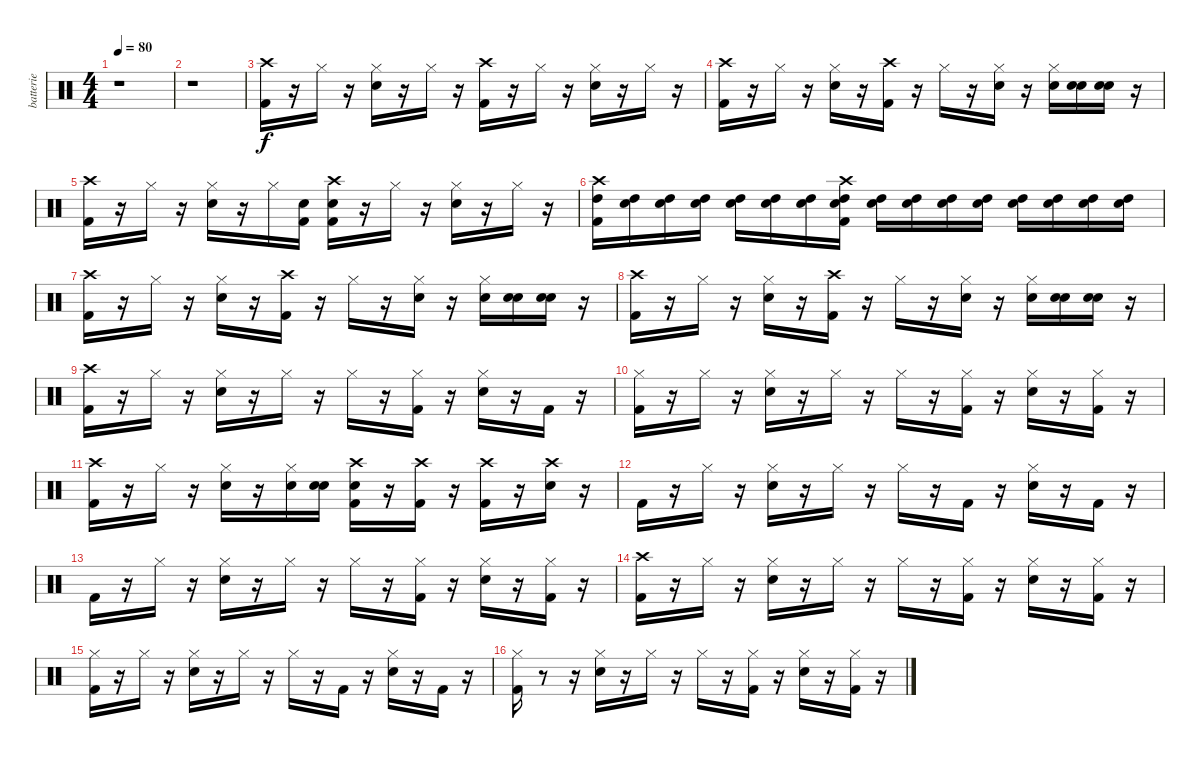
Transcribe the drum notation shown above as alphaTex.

\track ("batterie" "batterie") {instrument percussion}
\staff {score}
\articulation defaults
\ts (4 4)
\tempo 80
\clef neutral
\ks c
r.1{dy f} |
r.1 |
("Crash high (hit)" "Kick (hit) 2").16 r.16 "Hi-Hat (closed)".16 r.16 ("Hi-Hat (closed)" "Snare (hit) 2").16 r.16 "Hi-Hat (closed)".16 r.16 ("Crash high (hit)" "Kick (hit) 2").16 r.16 "Hi-Hat (closed)".16 r.16 ("Hi-Hat (closed)" "Snare (hit) 2").16 r.16 "Hi-Hat (closed)".16 r.16 |
("Crash high (hit)" "Kick (hit) 2").16 r.16 "Hi-Hat (closed)".16 r.16 ("Hi-Hat (closed)" "Snare (hit) 2").16 r.16 ("Crash high (hit)" "Kick (hit) 2").16 r.16 "Hi-Hat (closed)".16 r.16 ("Hi-Hat (closed)" "Snare (hit) 2").16 r.16 ("Hi-Hat (closed)" "Snare (hit) 2").16 ("Snare (hit)" "Snare (hit) 2").16 ("Snare (hit)" "Snare (hit) 2").16 r.16 |
("Crash high (hit)" "Kick (hit) 2").16 r.16 "Hi-Hat (closed)".16 r.16 ("Hi-Hat (closed)" "Snare (hit) 2").16 r.16 "Hi-Hat (closed)".16 ("Snare (hit)" "Kick (hit) 2").16 ("Snare (hit)" "Crash high (hit)" "Kick (hit) 2").16 r.16 "Hi-Hat (closed)".16 r.16 ("Hi-Hat (closed)" "Snare (hit) 2").16 r.16 "Hi-Hat (closed)".16 r.16 |
("High Tom (hit)" "Kick (hit) 2" "Crash high (hit)").16 ("Snare (hit)" "High Tom (hit)").16 ("Snare (hit)" "High Tom (hit)").16 ("Snare (hit)" "High Tom (hit)").16 ("Snare (hit)" "High Tom (hit)").16 ("Snare (hit)" "High Tom (hit)").16 ("Snare (hit)" "High Tom (hit)").16 ("Snare (hit)" "High Tom (hit)" "Kick (hit) 2" "Crash high (hit)").16 ("Snare (hit)" "High Tom (hit)").16 ("Snare (hit)" "High Tom (hit)").16 ("Snare (hit)" "High Tom (hit)").16 ("Snare (hit)" "High Tom (hit)").16 ("Snare (hit)" "High Tom (hit)").16 ("Snare (hit)" "High Tom (hit)").16 ("Snare (hit)" "High Tom (hit)").16 ("Snare (hit)" "High Tom (hit)").16 |
("Crash high (hit)" "Kick (hit) 2").16 r.16 "Hi-Hat (closed)".16 r.16 ("Hi-Hat (closed)" "Snare (hit) 2").16 r.16 ("Crash high (hit)" "Kick (hit) 2").16 r.16 "Hi-Hat (closed)".16 r.16 ("Hi-Hat (closed)" "Snare (hit) 2").16 r.16 ("Hi-Hat (closed)" "Snare (hit) 2").16 ("Snare (hit)" "Snare (hit) 2").16 ("Snare (hit)" "Snare (hit) 2").16 r.16 |
("Crash high (hit)" "Kick (hit) 2").16 r.16 "Hi-Hat (closed)".16 r.16 ("Hi-Hat (closed)" "Snare (hit) 2").16 r.16 ("Crash high (hit)" "Kick (hit) 2").16 r.16 "Hi-Hat (closed)".16 r.16 ("Hi-Hat (closed)" "Snare (hit) 2").16 r.16 ("Hi-Hat (closed)" "Snare (hit) 2").16 ("Snare (hit)" "Snare (hit) 2").16 ("Snare (hit)" "Snare (hit) 2").16 r.16 |
("Crash high (hit)" "Kick (hit) 2").16 r.16 "Hi-Hat (closed)".16 r.16 ("Hi-Hat (closed)" "Snare (hit) 2").16 r.16 "Hi-Hat (closed)".16 r.16 "Hi-Hat (closed)".16 r.16 ("Hi-Hat (closed)" "Kick (hit) 2").16 r.16 ("Hi-Hat (closed)" "Snare (hit) 2").16 r.16 "Kick (hit) 2".16 r.16 |
("Hi-Hat (closed)" "Kick (hit) 2").16 r.16 "Hi-Hat (closed)".16 r.16 ("Hi-Hat (closed)" "Snare (hit) 2").16 r.16 "Hi-Hat (closed)".16 r.16 "Hi-Hat (closed)".16 r.16 ("Hi-Hat (closed)" "Kick (hit) 2").16 r.16 ("Hi-Hat (closed)" "Snare (hit) 2").16 r.16 ("Hi-Hat (closed)" "Kick (hit) 2").16 r.16 |
("Crash high (hit)" "Kick (hit) 2").16 r.16 "Hi-Hat (closed)".16 r.16 ("Hi-Hat (closed)" "Snare (hit) 2").16 r.16 ("Hi-Hat (closed)" "Snare (hit) 2").16 ("Snare (hit)" "Snare (hit) 2").16 ("Snare (hit)" "Crash high (hit)" "Kick (hit) 2").16 r.16 ("Crash high (hit)" "Kick (hit) 2").16 r.16 ("Crash high (hit)" "Kick (hit) 2").16 r.16 ("Crash high (hit)" "Snare (hit) 2").16 r.16 |
"Kick (hit) 2".16 r.16 "Hi-Hat (closed)".16 r.16 ("Hi-Hat (closed)" "Snare (hit) 2").16 r.16 "Hi-Hat (closed)".16 r.16 "Hi-Hat (closed)".16 r.16 "Kick (hit) 2".16 r.16 ("Hi-Hat (closed)" "Snare (hit) 2").16 r.16 "Kick (hit) 2".16 r.16 |
"Kick (hit) 2".16 r.16 "Hi-Hat (closed)".16 r.16 ("Hi-Hat (closed)" "Snare (hit) 2").16 r.16 "Hi-Hat (closed)".16 r.16 "Hi-Hat (closed)".16 r.16 ("Hi-Hat (closed)" "Kick (hit) 2").16 r.16 ("Hi-Hat (closed)" "Snare (hit) 2").16 r.16 ("Hi-Hat (closed)" "Kick (hit) 2").16 r.16 |
("Crash high (hit)" "Kick (hit) 2").16 r.16 "Hi-Hat (closed)".16 r.16 ("Hi-Hat (closed)" "Snare (hit) 2").16 r.16 "Hi-Hat (closed)".16 r.16 "Hi-Hat (closed)".16 r.16 ("Hi-Hat (closed)" "Kick (hit) 2").16 r.16 ("Hi-Hat (closed)" "Snare (hit) 2").16 r.16 ("Hi-Hat (closed)" "Kick (hit) 2").16 r.16 |
("Hi-Hat (closed)" "Kick (hit) 2").16 r.16 "Hi-Hat (closed)".16 r.16 ("Hi-Hat (closed)" "Snare (hit) 2").16 r.16 "Hi-Hat (closed)".16 r.16 "Hi-Hat (closed)".16 r.16 "Kick (hit) 2".16 r.16 ("Hi-Hat (closed)" "Snare (hit) 2").16 r.16 "Kick (hit) 2".16 r.16 |
("Hi-Hat (closed)" "Kick (hit) 2").16 r.8 r.16 ("Hi-Hat (closed)" "Snare (hit) 2").16 r.16 "Hi-Hat (closed)".16 r.16 "Hi-Hat (closed)".16 r.16 ("Hi-Hat (closed)" "Kick (hit) 2").16 r.16 ("Hi-Hat (closed)" "Snare (hit) 2").16 r.16 ("Hi-Hat (closed)" "Kick (hit) 2").16 r.16
